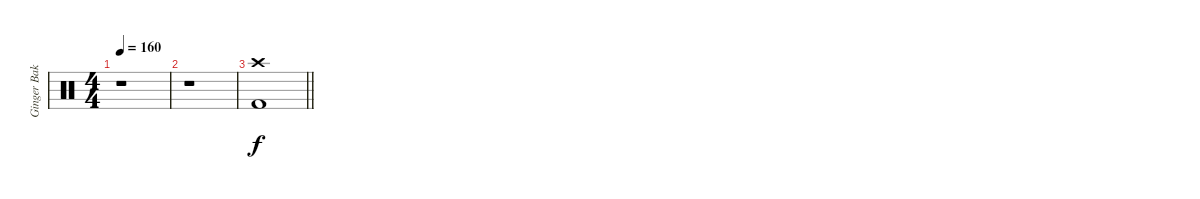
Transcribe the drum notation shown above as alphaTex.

\track ("Ginger Baker (Drums)" "Ginger Bak") {instrument percussion}
\staff {score}
\articulation defaults
\ts (4 4)
\tempo 160
\clef neutral
\ks c
r.1{dy f} |
r.1 |
\barLineRight lightlight
("Crash high (hit)" "Kick (hit) 2").1
